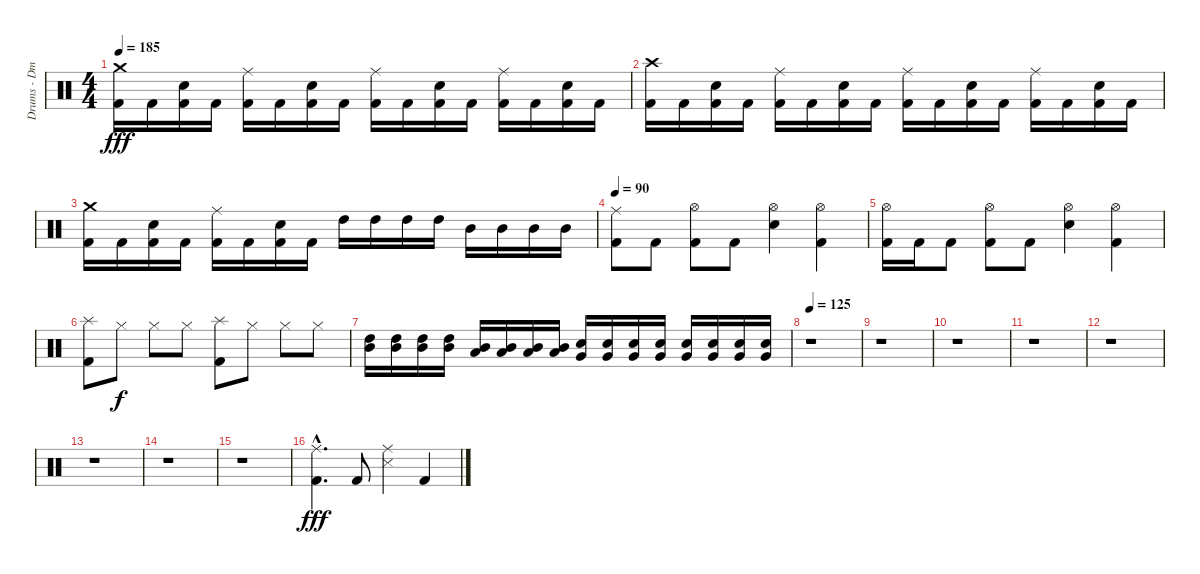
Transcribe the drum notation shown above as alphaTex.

\track ("Drums - Dmitriy Krivenkov" "Drums - Dm") {instrument percussion}
\staff {score}
\articulation defaults
\ts (4 4)
\tempo 185
\clef neutral
\ks c
("Crash medium (hit)" "Kick (hit) 2").16{dy fff} "Kick (hit) 2".16 ("Kick (hit) 2" "Electric Snare (hit)").16 "Kick (hit) 2".16 ("Ride (middle)" "Kick (hit) 2").16 "Kick (hit) 2".16 ("Electric Snare (hit)" "Kick (hit) 2").16 "Kick (hit) 2".16 ("Ride (middle)" "Kick (hit) 2").16 "Kick (hit) 2".16 ("Electric Snare (hit)" "Kick (hit) 2").16 "Kick (hit) 2".16 ("Ride (middle)" "Kick (hit) 2").16 "Kick (hit) 2".16 ("Electric Snare (hit)" "Kick (hit) 2").16 "Kick (hit) 2".16 |
("Crash high (hit)" "Kick (hit) 2").16 "Kick (hit) 2".16 ("Kick (hit) 2" "Electric Snare (hit)").16 "Kick (hit) 2".16 ("Ride (middle)" "Kick (hit) 2").16 "Kick (hit) 2".16 ("Electric Snare (hit)" "Kick (hit) 2").16 "Kick (hit) 2".16 ("Ride (middle)" "Kick (hit) 2").16 "Kick (hit) 2".16 ("Electric Snare (hit)" "Kick (hit) 2").16 "Kick (hit) 2".16 ("Ride (middle)" "Kick (hit) 2").16 "Kick (hit) 2".16 ("Electric Snare (hit)" "Kick (hit) 2").16 "Kick (hit) 2".16 |
("Crash medium (hit)" "Kick (hit) 2").16 "Kick (hit) 2".16 ("Kick (hit) 2" "Electric Snare (hit)").16 "Kick (hit) 2".16 ("Ride (middle)" "Kick (hit) 2").16 "Kick (hit) 2".16 ("Electric Snare (hit)" "Kick (hit) 2").16 "Kick (hit) 2".16 "High Tom (hit)".16 "High Tom (hit)".16 "High Tom (hit)".16 "High Tom (hit)".16 "Mid Tom (hit)".16 "Mid Tom (hit)".16 "Mid Tom (hit)".16 "Mid Tom (hit)".16 |
\tempo 90
("Ride (middle)" "Kick (hit) 2").8 "Kick (hit) 2".8 ("Hi-Hat (open)" "Kick (hit) 2").8 "Kick (hit) 2".8 ("Hi-Hat (open)" "Electric Snare (hit)").4 ("Hi-Hat (open)" "Kick (hit) 2").4 |
("Hi-Hat (open)" "Kick (hit) 2").16 "Kick (hit) 2".16 "Kick (hit) 2".8 ("Hi-Hat (open)" "Kick (hit) 2").8 "Kick (hit) 2".8 ("Hi-Hat (open)" "Electric Snare (hit)").4 ("Hi-Hat (open)" "Kick (hit) 2").4 |
("Splash (hit)" "Kick (hit) 2").8 "Hi-Hat (closed)".8{dy f} "Hi-Hat (closed)".8 "Hi-Hat (closed)".8 ("Splash (hit)" "Kick (hit) 2").8 "Hi-Hat (closed)".8 "Hi-Hat (closed)".8 "Hi-Hat (closed)".8 |
("Mid Tom (hit)" "High Tom (hit)").16 ("Mid Tom (hit)" "High Tom (hit)").16 ("Mid Tom (hit)" "High Tom (hit)").16 ("Mid Tom (hit)" "High Tom (hit)").16 ("Low Tom (hit)" "Mid Tom (hit)").16 ("Low Tom (hit)" "Mid Tom (hit)").16 ("Low Tom (hit)" "Mid Tom (hit)").16 ("Low Tom (hit)" "Mid Tom (hit)").16 ("Very Low Tom (hit)" "Electric Snare (hit)").16 ("Very Low Tom (hit)" "Electric Snare (hit)").16 ("Very Low Tom (hit)" "Electric Snare (hit)").16 ("Very Low Tom (hit)" "Electric Snare (hit)").16 ("Electric Snare (hit)" "Very Low Tom (hit)").16 ("Electric Snare (hit)" "Very Low Tom (hit)").16 ("Electric Snare (hit)" "Very Low Tom (hit)").16 ("Electric Snare (hit)" "Very Low Tom (hit)").16 |
\tempo 125
r.1 |
r.1 |
r.1 |
r.1 |
r.1 |
r.1 |
r.1 |
r.1 |
("Ride (middle)"{hac} "Kick (hit) 2"{hac}).4{d dy fff} "Kick (hit) 2".8 ("Ride (middle)" "Snare (side stick) 3").4 "Kick (hit) 2".4
